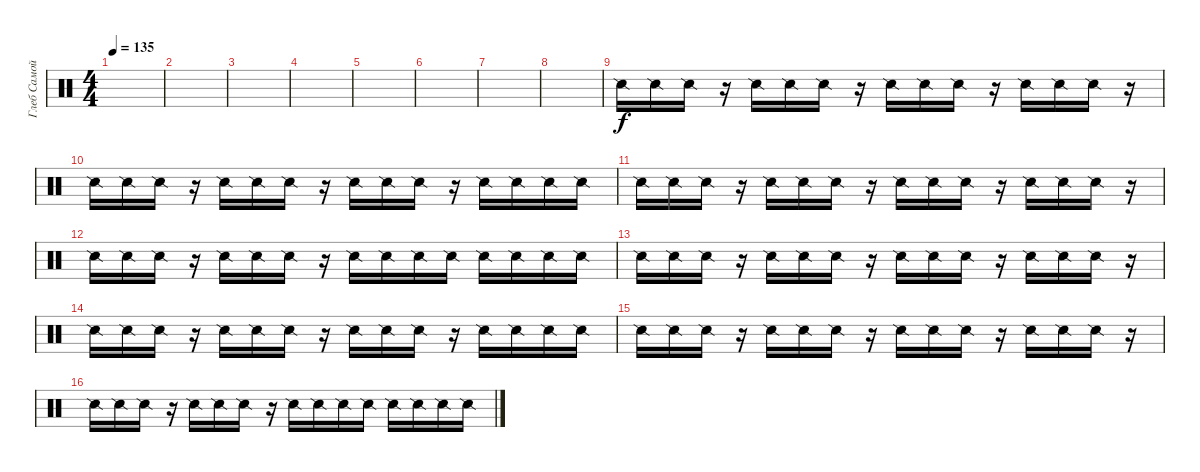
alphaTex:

\track ("Глеб Самойлов (fx)" "Глеб Самой") {instrument percussion}
\staff {score}
\articulation defaults
\ts (4 4)
\tempo 135
\clef neutral
\ks c
|
|
|
|
|
|
|
|
"Snare (side stick) 2".16 "Snare (side stick) 2".16 "Snare (side stick) 2".16 r.16 "Snare (side stick) 2".16 "Snare (side stick) 2".16 "Snare (side stick) 2".16 r.16 "Snare (side stick) 2".16 "Snare (side stick) 2".16 "Snare (side stick) 2".16 r.16 "Snare (side stick) 2".16 "Snare (side stick) 2".16 "Snare (side stick) 2".16 r.16 |
"Snare (side stick) 2".16 "Snare (side stick) 2".16 "Snare (side stick) 2".16 r.16 "Snare (side stick) 2".16 "Snare (side stick) 2".16 "Snare (side stick) 2".16 r.16 "Snare (side stick) 2".16 "Snare (side stick) 2".16 "Snare (side stick) 2".16 r.16 "Snare (side stick) 2".16 "Snare (side stick) 2".16 "Snare (side stick) 2".16 "Snare (side stick) 2".16 |
"Snare (side stick) 2".16 "Snare (side stick) 2".16 "Snare (side stick) 2".16 r.16 "Snare (side stick) 2".16 "Snare (side stick) 2".16 "Snare (side stick) 2".16 r.16 "Snare (side stick) 2".16 "Snare (side stick) 2".16 "Snare (side stick) 2".16 r.16 "Snare (side stick) 2".16 "Snare (side stick) 2".16 "Snare (side stick) 2".16 r.16 |
"Snare (side stick) 2".16 "Snare (side stick) 2".16 "Snare (side stick) 2".16 r.16 "Snare (side stick) 2".16 "Snare (side stick) 2".16 "Snare (side stick) 2".16 r.16 "Snare (side stick) 2".16 "Snare (side stick) 2".16 "Snare (side stick) 2".16 "Snare (side stick) 2".16 "Snare (side stick) 2".16 "Snare (side stick) 2".16 "Snare (side stick) 2".16 "Snare (side stick) 2".16 |
"Snare (side stick) 2".16 "Snare (side stick) 2".16 "Snare (side stick) 2".16 r.16 "Snare (side stick) 2".16 "Snare (side stick) 2".16 "Snare (side stick) 2".16 r.16 "Snare (side stick) 2".16 "Snare (side stick) 2".16 "Snare (side stick) 2".16 r.16 "Snare (side stick) 2".16 "Snare (side stick) 2".16 "Snare (side stick) 2".16 r.16 |
"Snare (side stick) 2".16 "Snare (side stick) 2".16 "Snare (side stick) 2".16 r.16 "Snare (side stick) 2".16 "Snare (side stick) 2".16 "Snare (side stick) 2".16 r.16 "Snare (side stick) 2".16 "Snare (side stick) 2".16 "Snare (side stick) 2".16 r.16 "Snare (side stick) 2".16 "Snare (side stick) 2".16 "Snare (side stick) 2".16 "Snare (side stick) 2".16 |
"Snare (side stick) 2".16 "Snare (side stick) 2".16 "Snare (side stick) 2".16 r.16 "Snare (side stick) 2".16 "Snare (side stick) 2".16 "Snare (side stick) 2".16 r.16 "Snare (side stick) 2".16 "Snare (side stick) 2".16 "Snare (side stick) 2".16 r.16 "Snare (side stick) 2".16 "Snare (side stick) 2".16 "Snare (side stick) 2".16 r.16 |
"Snare (side stick) 2".16 "Snare (side stick) 2".16 "Snare (side stick) 2".16 r.16 "Snare (side stick) 2".16 "Snare (side stick) 2".16 "Snare (side stick) 2".16 r.16 "Snare (side stick) 2".16 "Snare (side stick) 2".16 "Snare (side stick) 2".16 "Snare (side stick) 2".16 "Snare (side stick) 2".16 "Snare (side stick) 2".16 "Snare (side stick) 2".16 "Snare (side stick) 2".16
